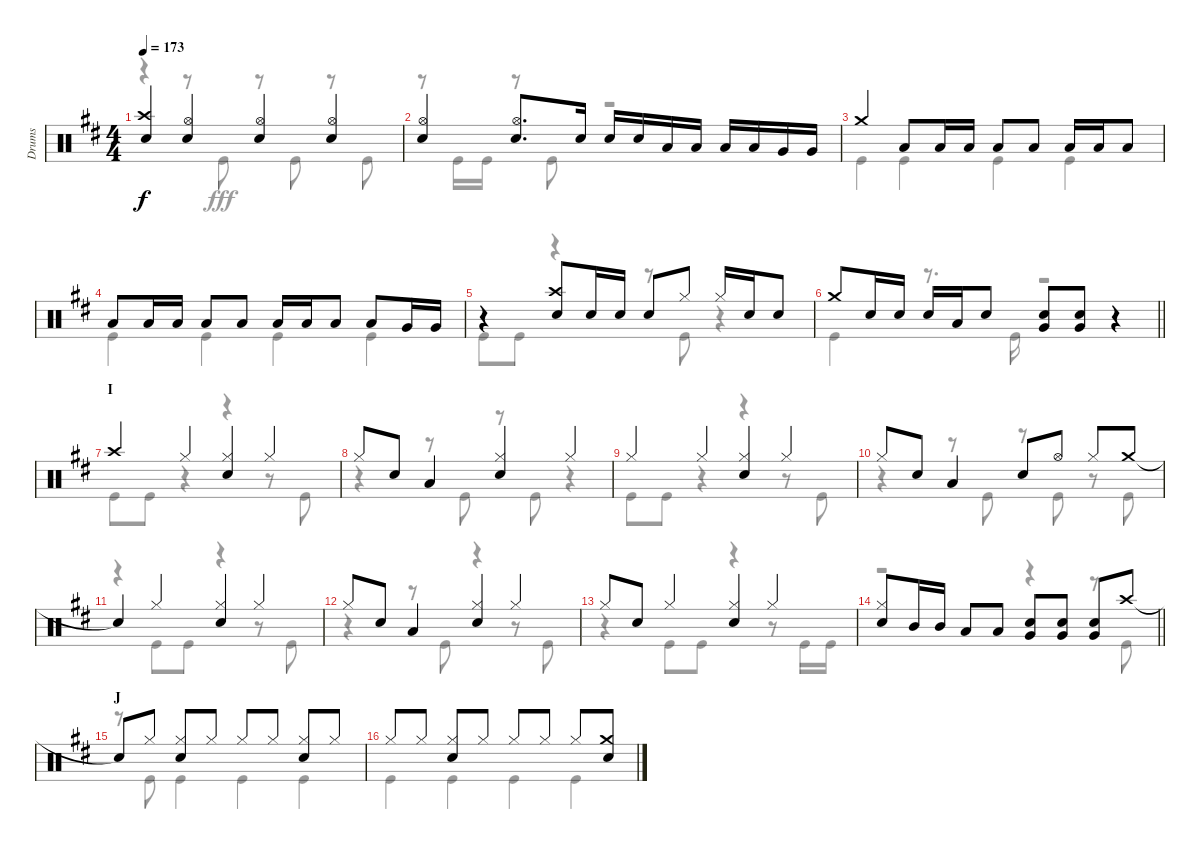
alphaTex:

\track ("Drums" "Drums") {instrument percussion}
\staff {score}
\articulation defaults
\voice
\ts (4 4)
\tempo 173
\clef neutral
\ks d
("Crash high (hit)" "Snare (hit) 2").4{dy f} ("Hi-Hat (open)" "Snare (hit) 2").4 ("Hi-Hat (open)" "Snare (hit) 2").4 ("Hi-Hat (open)" "Snare (hit) 2").4 |
("Hi-Hat (open)" "Snare (hit) 2").4 ("Hi-Hat (open)" "Snare (hit) 2").8{d} "Snare (hit) 2".16 "Snare (hit) 2".16 "Snare (hit) 2".16 "Low Tom (hit)".16 "Low Tom (hit)".16 "Low Tom (hit)".16 "Low Tom (hit)".16 "Very Low Tom (hit)".16 "Very Low Tom (hit)".16 |
"Crash medium (hit)".4 "Low Tom (hit)".8 "Low Tom (hit)".16 "Low Tom (hit)".16 "Low Tom (hit)".8 "Low Tom (hit)".8 "Low Tom (hit)".16 "Low Tom (hit)".16 "Low Tom (hit)".8 |
"Low Tom (hit)".8 "Low Tom (hit)".16 "Low Tom (hit)".16 "Low Tom (hit)".8 "Low Tom (hit)".8 "Low Tom (hit)".16 "Low Tom (hit)".16 "Low Tom (hit)".8 "Low Tom (hit)".8 "Very Low Tom (hit)".16 "Very Low Tom (hit)".16 |
r.4 ("Crash high (hit)" "Snare (hit) 2").8 "Snare (hit) 2".16 "Snare (hit) 2".16 "Snare (hit) 2".8 "Hi-Hat (closed)".8 "Hi-Hat (closed)".16 "Snare (hit) 2".16 "Snare (hit) 2".8 |
\barLineRight lightlight "Crash medium (hit)".8 "Snare (hit) 2".16 "Snare (hit) 2".16 "Snare (hit) 2".16 "Low Tom (hit)".16 "Snare (hit) 2".8
("Snare (hit) 2" "Very Low Tom (hit)").8 ("Snare (hit) 2" "Very Low Tom (hit)").8 r.4 |
\section ("" "I")
"Crash high (hit)".4 "Hi-Hat (closed)".4 ("Hi-Hat (closed)" "Snare (hit) 2").4 "Hi-Hat (closed)".4 |
"Hi-Hat (closed)".8 "Snare (hit) 2".8 "Low Tom (hit)".4 ("Hi-Hat (closed)" "Snare (hit) 2").4 "Hi-Hat (closed)".4 |
"Hi-Hat (closed)".4 "Hi-Hat (closed)".4 ("Hi-Hat (closed)" "Snare (hit) 2").4 "Hi-Hat (closed)".4 |
"Hi-Hat (closed)".8 "Snare (hit) 2".8 "Low Tom (hit)".4 "Snare (hit) 2".8 "Hi-Hat (open)".8 "Hi-Hat (closed)".8 "Crash medium (hit)".8 |
"Snare (hit)"{t}.4 "Hi-Hat (closed)".4 ("Hi-Hat (closed)" "Snare (hit) 2").4 "Hi-Hat (closed)".4 |
"Hi-Hat (closed)".8 "Snare (hit) 2".8 "Low Tom (hit)".4 ("Hi-Hat (closed)" "Snare (hit) 2").4 "Hi-Hat (closed)".4 |
"Hi-Hat (closed)".8 "Snare (hit) 2".8 "Hi-Hat (closed)".4 ("Hi-Hat (closed)" "Snare (hit) 2").4 "Hi-Hat (closed)".4 |
\barLineRight lightlight
("Hi-Hat (closed)" "Snare (hit) 2").8 "Mid Tom (hit)".16 "Mid Tom (hit)".16 "Low Tom (hit)".8 "Low Tom (hit)".8 ("Snare (hit) 2" "Very Low Tom (hit)").8 ("Snare (hit) 2" "Very Low Tom (hit)").8 ("Snare (hit) 2" "Very Low Tom (hit)").8 "Crash high (hit)".8 |
\section ("" "J")
"Snare (hit)"{t}.8 "Hi-Hat (closed)".8 ("Hi-Hat (closed)" "Snare (hit) 2").8 "Hi-Hat (closed)".8 "Hi-Hat (closed)".8 "Hi-Hat (closed)".8 ("Hi-Hat (closed)" "Snare (hit) 2").8 "Hi-Hat (closed)".8 |
"Hi-Hat (closed)".8 "Hi-Hat (closed)".8 ("Hi-Hat (closed)" "Snare (hit) 2").8 "Hi-Hat (closed)".8 "Hi-Hat (closed)".8 "Hi-Hat (closed)".8 "Hi-Hat (closed)".8 ("Crash medium (hit)" "Snare (hit) 2").8
\voice
\clef neutral
\ottava regular
\simile none
\ks d
r.4{dy fff} r.8 "Kick (hit)".8 r.8 "Kick (hit)".8 r.8 "Kick (hit)".8 |
r.8 "Kick (hit)".16 "Kick (hit)".16 r.8 "Kick (hit)".8 r.2 |
"Kick (hit)".4 "Kick (hit)".4 "Kick (hit)".4 "Kick (hit)".4 |
"Kick (hit)".4 "Kick (hit)".4 "Kick (hit)".4 "Kick (hit)".4 |
"Kick (hit)".8 "Kick (hit)".8 r.4 r.8 "Kick (hit)".8 r.4 |
\barLineRight lightlight "Kick (hit)".4
r.8{d} "Kick (hit)".16 r.2 |
"Kick (hit)".8 "Kick (hit)".8 r.4 r.4 r.8 "Kick (hit)".8 |
r.4 r.8 "Kick (hit)".8 r.8 "Kick (hit)".8 r.4 |
"Kick (hit)".8 "Kick (hit)".8 r.4 r.4 r.8 "Kick (hit)".8 |
r.4 r.8 "Kick (hit)".8 r.8 "Kick (hit)".8 r.8 "Kick (hit)".8 |
r.4 "Kick (hit)".8 "Kick (hit)".8 r.4 r.8 "Kick (hit)".8 |
r.4 r.8 "Kick (hit)".8 r.4 r.8 "Kick (hit)".8 |
r.4 "Kick (hit)".8 "Kick (hit)".8 r.4 r.8 "Kick (hit)".16 "Kick (hit)".16 |
\barLineRight lightlight
r.2 r.4 r.8 "Kick (hit)".8 |
r.8 "Kick (hit)".8 "Kick (hit)".4 "Kick (hit)".4 "Kick (hit)".4 |
"Kick (hit)".4 "Kick (hit)".4 "Kick (hit)".4 "Kick (hit)".4
